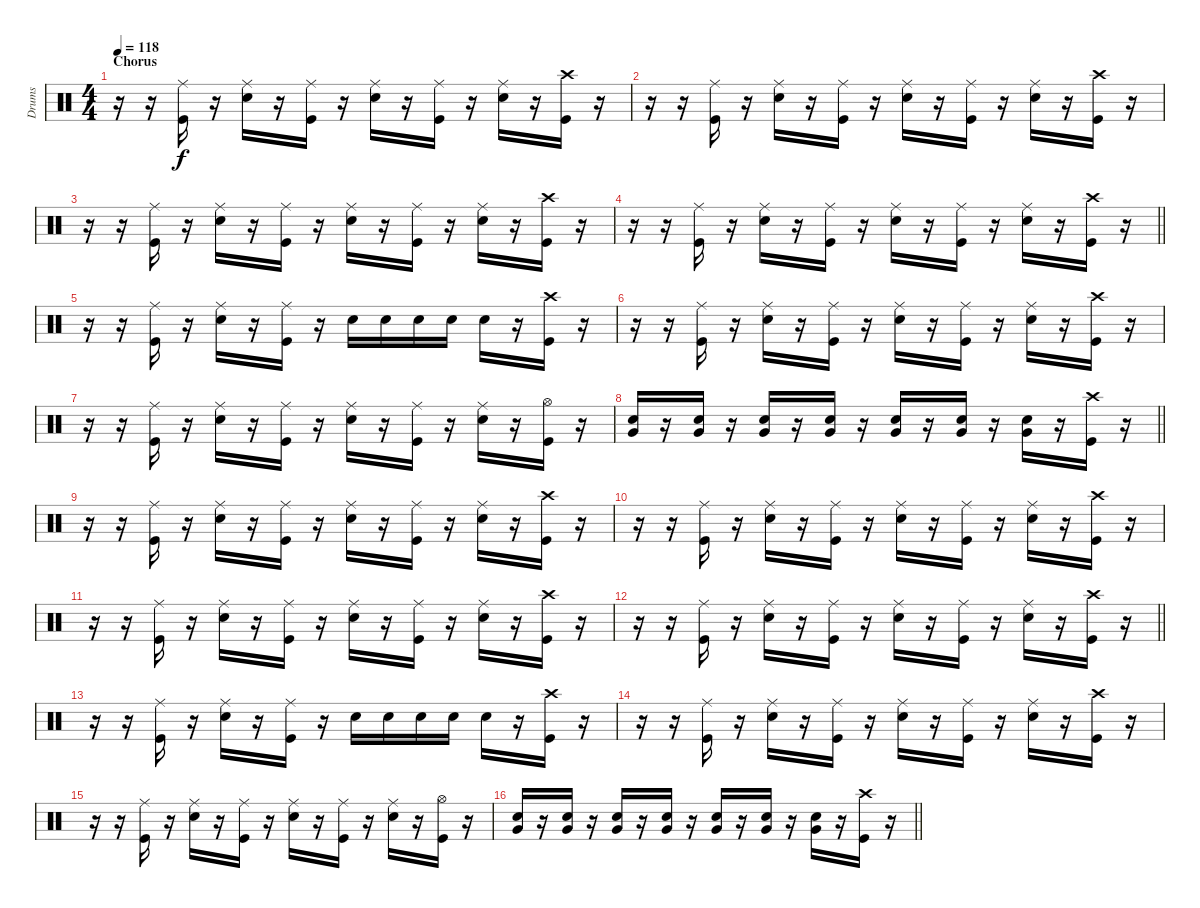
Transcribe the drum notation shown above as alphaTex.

\track ("Drums" "Drums") {instrument percussion}
\staff {score}
\articulation defaults
\ts (4 4)
\section ("" "Chorus")
\tempo 118
\clef neutral
\ks c
r.16{dy f} r.16 ("Ride (middle)" "Kick (hit)").16 r.16 ("Ride (middle)" "Snare (hit) 2").16 r.16 ("Ride (middle)" "Kick (hit)").16 r.16 ("Ride (middle)" "Snare (hit) 2").16 r.16 ("Ride (middle)" "Kick (hit)").16 r.16 ("Ride (middle)" "Snare (hit) 2").16 r.16 ("Crash high (hit)" "Kick (hit)").16 r.16 |
r.16 r.16 ("Ride (middle)" "Kick (hit)").16 r.16 ("Ride (middle)" "Snare (hit) 2").16 r.16 ("Ride (middle)" "Kick (hit)").16 r.16 ("Ride (middle)" "Snare (hit) 2").16 r.16 ("Ride (middle)" "Kick (hit)").16 r.16 ("Ride (middle)" "Snare (hit) 2").16 r.16 ("Crash high (hit)" "Kick (hit)").16 r.16 |
r.16 r.16 ("Ride (middle)" "Kick (hit)").16 r.16 ("Ride (middle)" "Snare (hit) 2").16 r.16 ("Ride (middle)" "Kick (hit)").16 r.16 ("Ride (middle)" "Snare (hit) 2").16 r.16 ("Ride (middle)" "Kick (hit)").16 r.16 ("Ride (middle)" "Snare (hit) 2").16 r.16 ("Crash high (hit)" "Kick (hit)").16 r.16 |
\barLineRight lightlight
r.16 r.16 ("Ride (middle)" "Kick (hit)").16 r.16 ("Ride (middle)" "Snare (hit) 2").16 r.16 ("Ride (middle)" "Kick (hit)").16 r.16 ("Ride (middle)" "Snare (hit) 2").16 r.16 ("Ride (middle)" "Kick (hit)").16 r.16 ("Ride (middle)" "Snare (hit) 2").16 r.16 ("Crash high (hit)" "Kick (hit)").16 r.16 |
r.16 r.16 ("Ride (middle)" "Kick (hit)").16 r.16 ("Ride (middle)" "Snare (hit) 2").16 r.16 ("Ride (middle)" "Kick (hit)").16 r.16 "Snare (hit) 2".16 "Snare (hit) 2".16 "Snare (hit) 2".16 "Snare (hit) 2".16 "Snare (hit) 2".16 r.16 ("Crash high (hit)" "Kick (hit)").16 r.16 |
r.16 r.16 ("Ride (middle)" "Kick (hit)").16 r.16 ("Ride (middle)" "Snare (hit) 2").16 r.16 ("Ride (middle)" "Kick (hit)").16 r.16 ("Ride (middle)" "Snare (hit) 2").16 r.16 ("Ride (middle)" "Kick (hit)").16 r.16 ("Ride (middle)" "Snare (hit) 2").16 r.16 ("Crash high (hit)" "Kick (hit)").16 r.16 |
r.16 r.16 ("Ride (middle)" "Kick (hit)").16 r.16 ("Ride (middle)" "Snare (hit) 2").16 r.16 ("Ride (middle)" "Kick (hit)").16 r.16 ("Ride (middle)" "Snare (hit) 2").16 r.16 ("Ride (middle)" "Kick (hit)").16 r.16 ("Ride (middle)" "Snare (hit) 2").16 r.16 ("Hi-Hat (open)" "Kick (hit)").16 r.16 |
\barLineRight lightlight
("Very Low Tom (hit)" "Snare (hit) 2").16 r.16 ("Very Low Tom (hit)" "Snare (hit) 2").16 r.16 ("Very Low Tom (hit)" "Snare (hit) 2").16 r.16 ("Very Low Tom (hit)" "Snare (hit) 2").16 r.16 ("Very Low Tom (hit)" "Snare (hit) 2").16 r.16 ("Very Low Tom (hit)" "Snare (hit) 2").16 r.16 ("Very Low Tom (hit)" "Snare (hit) 2").16 r.16 ("Crash high (hit)" "Kick (hit)").16 r.16 |
r.16 r.16 ("Ride (middle)" "Kick (hit)").16 r.16 ("Ride (middle)" "Snare (hit) 2").16 r.16 ("Ride (middle)" "Kick (hit)").16 r.16 ("Ride (middle)" "Snare (hit) 2").16 r.16 ("Ride (middle)" "Kick (hit)").16 r.16 ("Ride (middle)" "Snare (hit) 2").16 r.16 ("Crash high (hit)" "Kick (hit)").16 r.16 |
r.16 r.16 ("Ride (middle)" "Kick (hit)").16 r.16 ("Ride (middle)" "Snare (hit) 2").16 r.16 ("Ride (middle)" "Kick (hit)").16 r.16 ("Ride (middle)" "Snare (hit) 2").16 r.16 ("Ride (middle)" "Kick (hit)").16 r.16 ("Ride (middle)" "Snare (hit) 2").16 r.16 ("Crash high (hit)" "Kick (hit)").16 r.16 |
r.16 r.16 ("Ride (middle)" "Kick (hit)").16 r.16 ("Ride (middle)" "Snare (hit) 2").16 r.16 ("Ride (middle)" "Kick (hit)").16 r.16 ("Ride (middle)" "Snare (hit) 2").16 r.16 ("Ride (middle)" "Kick (hit)").16 r.16 ("Ride (middle)" "Snare (hit) 2").16 r.16 ("Crash high (hit)" "Kick (hit)").16 r.16 |
\barLineRight lightlight
r.16 r.16 ("Ride (middle)" "Kick (hit)").16 r.16 ("Ride (middle)" "Snare (hit) 2").16 r.16 ("Ride (middle)" "Kick (hit)").16 r.16 ("Ride (middle)" "Snare (hit) 2").16 r.16 ("Ride (middle)" "Kick (hit)").16 r.16 ("Ride (middle)" "Snare (hit) 2").16 r.16 ("Crash high (hit)" "Kick (hit)").16 r.16 |
r.16 r.16 ("Ride (middle)" "Kick (hit)").16 r.16 ("Ride (middle)" "Snare (hit) 2").16 r.16 ("Ride (middle)" "Kick (hit)").16 r.16 "Snare (hit) 2".16 "Snare (hit) 2".16 "Snare (hit) 2".16 "Snare (hit) 2".16 "Snare (hit) 2".16 r.16 ("Crash high (hit)" "Kick (hit)").16 r.16 |
r.16 r.16 ("Ride (middle)" "Kick (hit)").16 r.16 ("Ride (middle)" "Snare (hit) 2").16 r.16 ("Ride (middle)" "Kick (hit)").16 r.16 ("Ride (middle)" "Snare (hit) 2").16 r.16 ("Ride (middle)" "Kick (hit)").16 r.16 ("Ride (middle)" "Snare (hit) 2").16 r.16 ("Crash high (hit)" "Kick (hit)").16 r.16 |
r.16 r.16 ("Ride (middle)" "Kick (hit)").16 r.16 ("Ride (middle)" "Snare (hit) 2").16 r.16 ("Ride (middle)" "Kick (hit)").16 r.16 ("Ride (middle)" "Snare (hit) 2").16 r.16 ("Ride (middle)" "Kick (hit)").16 r.16 ("Ride (middle)" "Snare (hit) 2").16 r.16 ("Hi-Hat (open)" "Kick (hit)").16 r.16 |
\barLineRight lightlight
("Very Low Tom (hit)" "Snare (hit) 2").16 r.16 ("Very Low Tom (hit)" "Snare (hit) 2").16 r.16 ("Very Low Tom (hit)" "Snare (hit) 2").16 r.16 ("Very Low Tom (hit)" "Snare (hit) 2").16 r.16 ("Very Low Tom (hit)" "Snare (hit) 2").16 r.16 ("Very Low Tom (hit)" "Snare (hit) 2").16 r.16 ("Very Low Tom (hit)" "Snare (hit) 2").16 r.16 ("Crash high (hit)" "Kick (hit)").16 r.16
